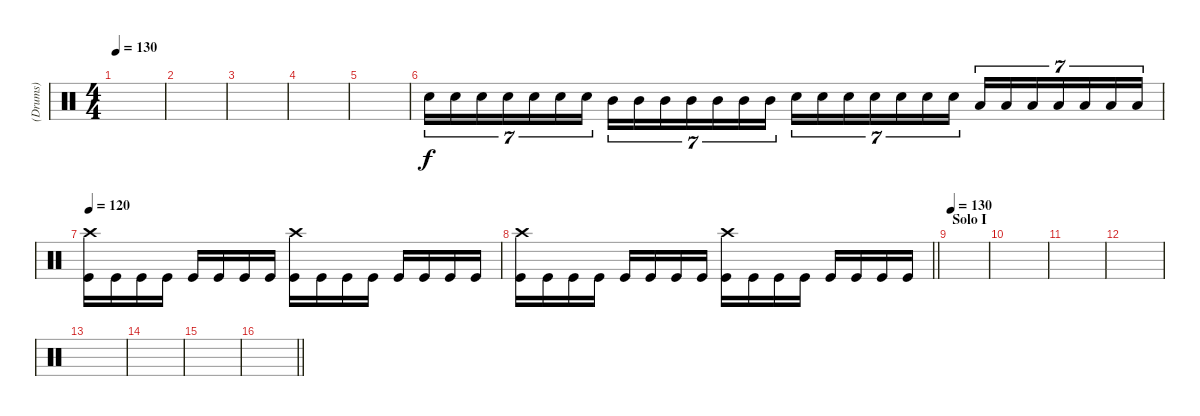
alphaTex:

\track ("(Drums)" "(Drums)") {instrument percussion}
\staff {score}
\articulation defaults
\ts (4 4)
\tempo 130
\clef neutral
\ks c
|
|
|
|
|
"Snare (hit) 2".16{tu (7 4)} "Snare (hit) 2".16{tu (7 4)} "Snare (hit) 2".16{tu (7 4)} "Snare (hit) 2".16{tu (7 4)} "Snare (hit) 2".16{tu (7 4)} "Snare (hit) 2".16{tu (7 4)} "Snare (hit) 2".16{tu (7 4)} "Mid Tom (hit)".16{tu (7 4)} "Mid Tom (hit)".16{tu (7 4)} "Mid Tom (hit)".16{tu (7 4)} "Mid Tom (hit)".16{tu (7 4)} "Mid Tom (hit)".16{tu (7 4)} "Mid Tom (hit)".16{tu (7 4)} "Mid Tom (hit)".16{tu (7 4)} "Snare (hit) 2".16{tu (7 4)} "Snare (hit) 2".16{tu (7 4)} "Snare (hit) 2".16{tu (7 4)} "Snare (hit) 2".16{tu (7 4)} "Snare (hit) 2".16{tu (7 4)} "Snare (hit) 2".16{tu (7 4)} "Snare (hit) 2".16{tu (7 4)} "Low Tom (hit)".16{tu (7 4)} "Low Tom (hit)".16{tu (7 4)} "Low Tom (hit)".16{tu (7 4)} "Low Tom (hit)".16{tu (7 4)} "Low Tom (hit)".16{tu (7 4)} "Low Tom (hit)".16{tu (7 4)} "Low Tom (hit)".16{tu (7 4)} |
\tempo 120
("Crash high (hit)" "Kick (hit)").16 "Kick (hit)".16 "Kick (hit)".16 "Kick (hit)".16 "Kick (hit)".16 "Kick (hit)".16 "Kick (hit)".16 "Kick (hit)".16 ("Crash high (hit)" "Kick (hit)").16 "Kick (hit)".16 "Kick (hit)".16 "Kick (hit)".16 "Kick (hit)".16 "Kick (hit)".16 "Kick (hit)".16 "Kick (hit)".16 |
\barLineRight lightlight
("Crash high (hit)" "Kick (hit)").16 "Kick (hit)".16 "Kick (hit)".16 "Kick (hit)".16 "Kick (hit)".16 "Kick (hit)".16 "Kick (hit)".16 "Kick (hit)".16 ("Crash high (hit)" "Kick (hit)").16 "Kick (hit)".16 "Kick (hit)".16 "Kick (hit)".16 "Kick (hit)".16 "Kick (hit)".16 "Kick (hit)".16 "Kick (hit)".16 |
\section ("" "Solo I")
\tempo 130
|
|
|
|
|
|
|
\barLineRight lightlight
